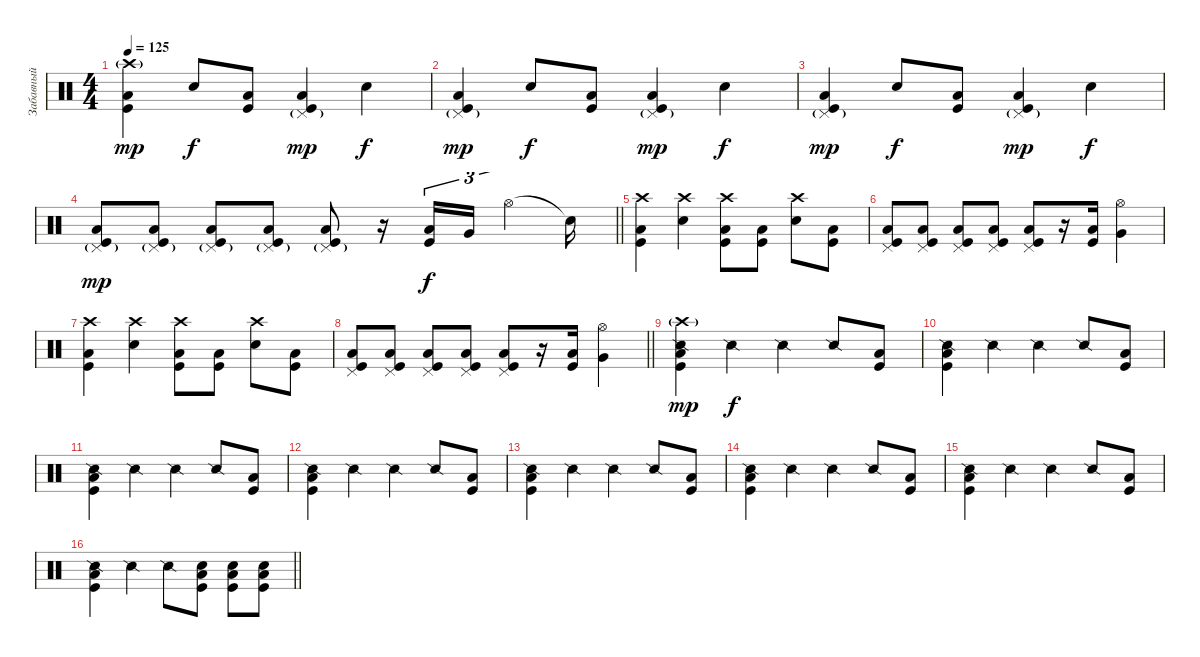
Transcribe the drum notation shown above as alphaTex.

\track ("Забавный" "Забавный") {instrument percussion}
\staff {score}
\articulation defaults
\ts (4 4)
\tempo 125
\clef neutral
\ks c
("Crash high (hit)"{g} "Low Tom (hit)" "Kick (hit)").4{dy mp} "Electric Snare (hit)".8{dy f} ("Low Tom (hit)" "Kick (hit)").8 ("Pedal Hi-Hat (hit)"{g} "Low Tom (hit)" "Kick (hit)").4{dy mp} "Electric Snare (hit)".4{dy f} |
("Pedal Hi-Hat (hit)"{g} "Low Tom (hit)" "Kick (hit)").4{dy mp} "Electric Snare (hit)".8{dy f} ("Low Tom (hit)" "Kick (hit)").8 ("Pedal Hi-Hat (hit)"{g} "Low Tom (hit)" "Kick (hit)").4{dy mp} "Electric Snare (hit)".4{dy f} |
("Pedal Hi-Hat (hit)"{g} "Low Tom (hit)" "Kick (hit)").4{dy mp} "Electric Snare (hit)".8{dy f} ("Low Tom (hit)" "Kick (hit)").8 ("Pedal Hi-Hat (hit)"{g} "Low Tom (hit)" "Kick (hit)").4{dy mp} "Electric Snare (hit)".4{dy f} |
\barLineRight lightlight
("Pedal Hi-Hat (hit)"{g} "Low Tom (hit)" "Kick (hit)").8{dy mp} ("Pedal Hi-Hat (hit)"{g} "Low Tom (hit)" "Kick (hit)").8 ("Pedal Hi-Hat (hit)"{g} "Low Tom (hit)" "Kick (hit)").8 ("Pedal Hi-Hat (hit)"{g} "Low Tom (hit)" "Kick (hit)").8 ("Pedal Hi-Hat (hit)"{g} "Low Tom (hit)" "Kick (hit)").8 r.16 ("Low Tom (hit)" "Kick (hit)").16{tu (3 2) dy f} "Very Low Tom (hit)".16{tu (3 2)} "Hi-Hat (open)".4{tu (3 2)} "Snare (hit)"{t}.16 |
("Crash high (hit)" "Low Tom (hit)" "Kick (hit)").4 ("Crash high (hit)" "Electric Snare (hit)").4 ("Crash high (hit)" "Low Tom (hit)" "Kick (hit)").8 ("Low Tom (hit)" "Kick (hit)").8 ("Crash high (hit)" "Electric Snare (hit)").8 ("Low Tom (hit)" "Kick (hit)").8 |
("Pedal Hi-Hat (hit)" "Low Tom (hit)" "Kick (hit)").8 ("Pedal Hi-Hat (hit)" "Low Tom (hit)" "Kick (hit)").8 ("Pedal Hi-Hat (hit)" "Low Tom (hit)" "Kick (hit)").8 ("Pedal Hi-Hat (hit)" "Low Tom (hit)" "Kick (hit)").8 ("Pedal Hi-Hat (hit)" "Low Tom (hit)" "Kick (hit)").8 r.16 ("Low Tom (hit)" "Kick (hit)").16 ("Hi-Hat (open)" "Very Low Tom (hit)").4 |
("Crash high (hit)" "Low Tom (hit)" "Kick (hit)").4 ("Crash high (hit)" "Electric Snare (hit)").4 ("Crash high (hit)" "Low Tom (hit)" "Kick (hit)").8 ("Low Tom (hit)" "Kick (hit)").8 ("Crash high (hit)" "Electric Snare (hit)").8 ("Low Tom (hit)" "Kick (hit)").8 |
\barLineRight lightlight
("Pedal Hi-Hat (hit)" "Low Tom (hit)" "Kick (hit)").8 ("Pedal Hi-Hat (hit)" "Low Tom (hit)" "Kick (hit)").8 ("Pedal Hi-Hat (hit)" "Low Tom (hit)" "Kick (hit)").8 ("Pedal Hi-Hat (hit)" "Low Tom (hit)" "Kick (hit)").8 ("Pedal Hi-Hat (hit)" "Low Tom (hit)" "Kick (hit)").8 r.16 ("Low Tom (hit)" "Kick (hit)").16 ("Hi-Hat (open)" "Very Low Tom (hit)").4 |
("Crash high (hit)"{g} "Snare (side stick) 2" "Low Tom (hit)" "Kick (hit)").4{dy mp} "Snare (side stick) 2".4{dy f} "Snare (side stick) 2".4 "Snare (side stick) 2".8 ("Low Tom (hit)" "Kick (hit)").8 |
("Snare (side stick) 2" "Low Tom (hit)" "Kick (hit)").4 "Snare (side stick) 2".4 "Snare (side stick) 2".4 "Snare (side stick) 2".8 ("Low Tom (hit)" "Kick (hit)").8 |
("Snare (side stick) 2" "Low Tom (hit)" "Kick (hit)").4 "Snare (side stick) 2".4 "Snare (side stick) 2".4 "Snare (side stick) 2".8 ("Low Tom (hit)" "Kick (hit)").8 |
("Snare (side stick) 2" "Low Tom (hit)" "Kick (hit)").4 "Snare (side stick) 2".4 "Snare (side stick) 2".4 "Snare (side stick) 2".8 ("Low Tom (hit)" "Kick (hit)").8 |
("Snare (side stick) 2" "Low Tom (hit)" "Kick (hit)").4 "Snare (side stick) 2".4 "Snare (side stick) 2".4 "Snare (side stick) 2".8 ("Low Tom (hit)" "Kick (hit)").8 |
("Snare (side stick) 2" "Low Tom (hit)" "Kick (hit)").4 "Snare (side stick) 2".4 "Snare (side stick) 2".4 "Snare (side stick) 2".8 ("Low Tom (hit)" "Kick (hit)").8 |
("Snare (side stick) 2" "Low Tom (hit)" "Kick (hit)").4 "Snare (side stick) 2".4 "Snare (side stick) 2".4 "Snare (side stick) 2".8 ("Low Tom (hit)" "Kick (hit)").8 |
\barLineRight lightlight
("Snare (side stick) 2" "Low Tom (hit)" "Kick (hit)").4 "Snare (side stick) 2".4 "Snare (side stick) 2".8 ("Electric Snare (hit)" "Low Tom (hit)" "Kick (hit)").8 ("Electric Snare (hit)" "Low Tom (hit)" "Kick (hit)").8 ("Electric Snare (hit)" "Low Tom (hit)" "Kick (hit)").8
